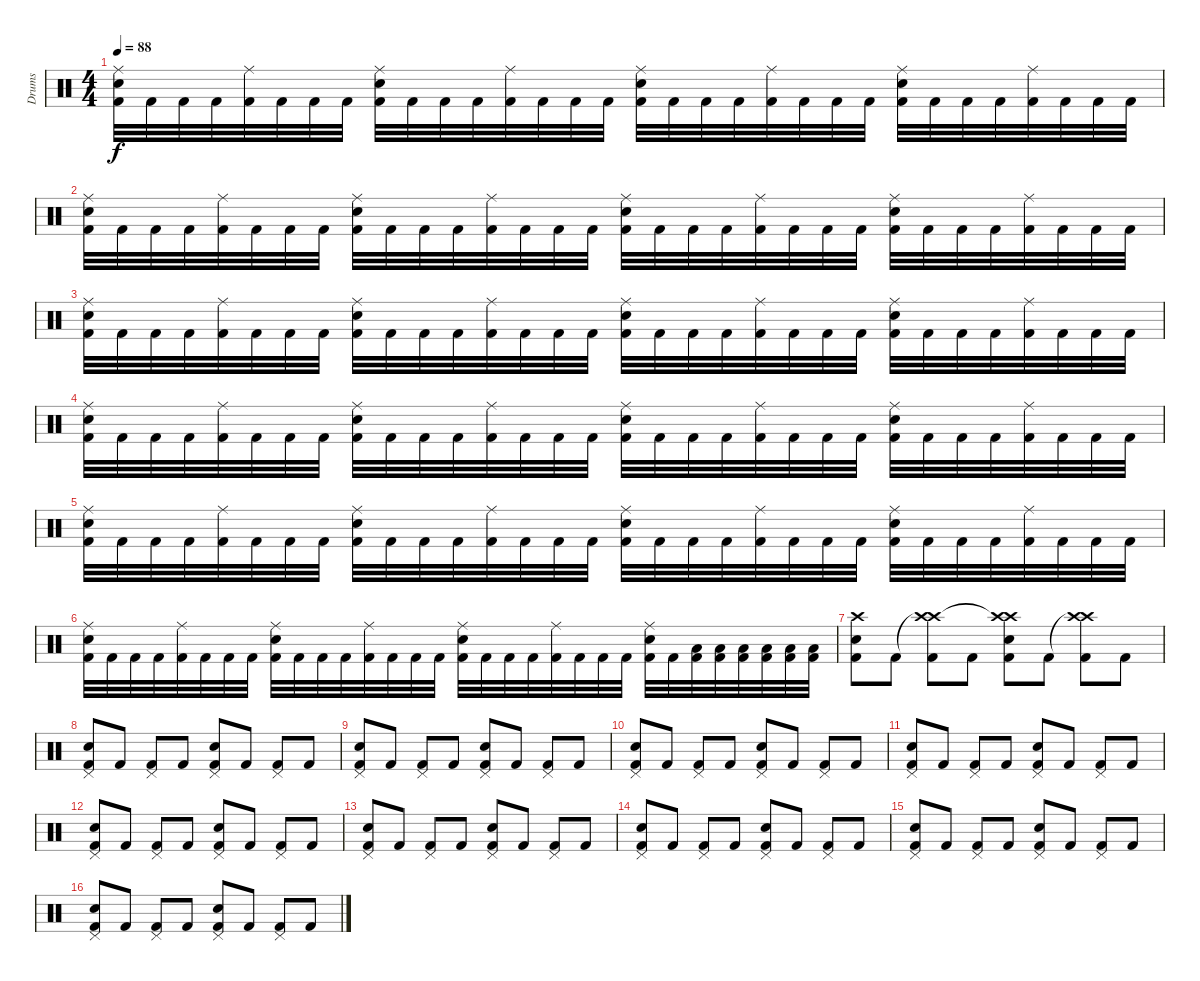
\track ("Drums" "Drums") {instrument percussion}
\staff {score}
\articulation defaults
\ts (4 4)
\tempo 88
\clef neutral
\ks c
("Ride (middle)" "Kick (hit) 2" "Electric Snare (hit)").32{dy f} "Kick (hit) 2".32 "Kick (hit) 2".32 "Kick (hit) 2".32 ("Ride (middle)" "Kick (hit) 2").32 "Kick (hit) 2".32 "Kick (hit) 2".32 "Kick (hit) 2".32 ("Ride (middle)" "Kick (hit) 2" "Electric Snare (hit)").32 "Kick (hit) 2".32 "Kick (hit) 2".32 "Kick (hit) 2".32 ("Ride (middle)" "Kick (hit) 2").32 "Kick (hit) 2".32 "Kick (hit) 2".32 "Kick (hit) 2".32 ("Ride (middle)" "Kick (hit) 2" "Electric Snare (hit)").32 "Kick (hit) 2".32 "Kick (hit) 2".32 "Kick (hit) 2".32 ("Ride (middle)" "Kick (hit) 2").32 "Kick (hit) 2".32 "Kick (hit) 2".32 "Kick (hit) 2".32 ("Ride (middle)" "Kick (hit) 2" "Electric Snare (hit)").32 "Kick (hit) 2".32 "Kick (hit) 2".32 "Kick (hit) 2".32 ("Ride (middle)" "Kick (hit) 2").32 "Kick (hit) 2".32 "Kick (hit) 2".32 "Kick (hit) 2".32 |
("Ride (middle)" "Kick (hit) 2" "Electric Snare (hit)").32 "Kick (hit) 2".32 "Kick (hit) 2".32 "Kick (hit) 2".32 ("Ride (middle)" "Kick (hit) 2").32 "Kick (hit) 2".32 "Kick (hit) 2".32 "Kick (hit) 2".32 ("Ride (middle)" "Kick (hit) 2" "Electric Snare (hit)").32 "Kick (hit) 2".32 "Kick (hit) 2".32 "Kick (hit) 2".32 ("Ride (middle)" "Kick (hit) 2").32 "Kick (hit) 2".32 "Kick (hit) 2".32 "Kick (hit) 2".32 ("Ride (middle)" "Kick (hit) 2" "Electric Snare (hit)").32 "Kick (hit) 2".32 "Kick (hit) 2".32 "Kick (hit) 2".32 ("Ride (middle)" "Kick (hit) 2").32 "Kick (hit) 2".32 "Kick (hit) 2".32 "Kick (hit) 2".32 ("Ride (middle)" "Kick (hit) 2" "Electric Snare (hit)").32 "Kick (hit) 2".32 "Kick (hit) 2".32 "Kick (hit) 2".32 ("Ride (middle)" "Kick (hit) 2").32 "Kick (hit) 2".32 "Kick (hit) 2".32 "Kick (hit) 2".32 |
("Ride (middle)" "Kick (hit) 2" "Electric Snare (hit)").32 "Kick (hit) 2".32 "Kick (hit) 2".32 "Kick (hit) 2".32 ("Ride (middle)" "Kick (hit) 2").32 "Kick (hit) 2".32 "Kick (hit) 2".32 "Kick (hit) 2".32 ("Ride (middle)" "Kick (hit) 2" "Electric Snare (hit)").32 "Kick (hit) 2".32 "Kick (hit) 2".32 "Kick (hit) 2".32 ("Ride (middle)" "Kick (hit) 2").32 "Kick (hit) 2".32 "Kick (hit) 2".32 "Kick (hit) 2".32 ("Ride (middle)" "Kick (hit) 2" "Electric Snare (hit)").32 "Kick (hit) 2".32 "Kick (hit) 2".32 "Kick (hit) 2".32 ("Ride (middle)" "Kick (hit) 2").32 "Kick (hit) 2".32 "Kick (hit) 2".32 "Kick (hit) 2".32 ("Ride (middle)" "Kick (hit) 2" "Electric Snare (hit)").32 "Kick (hit) 2".32 "Kick (hit) 2".32 "Kick (hit) 2".32 ("Ride (middle)" "Kick (hit) 2").32 "Kick (hit) 2".32 "Kick (hit) 2".32 "Kick (hit) 2".32 |
("Ride (middle)" "Kick (hit) 2" "Electric Snare (hit)").32 "Kick (hit) 2".32 "Kick (hit) 2".32 "Kick (hit) 2".32 ("Ride (middle)" "Kick (hit) 2").32 "Kick (hit) 2".32 "Kick (hit) 2".32 "Kick (hit) 2".32 ("Ride (middle)" "Kick (hit) 2" "Electric Snare (hit)").32 "Kick (hit) 2".32 "Kick (hit) 2".32 "Kick (hit) 2".32 ("Ride (middle)" "Kick (hit) 2").32 "Kick (hit) 2".32 "Kick (hit) 2".32 "Kick (hit) 2".32 ("Ride (middle)" "Kick (hit) 2" "Electric Snare (hit)").32 "Kick (hit) 2".32 "Kick (hit) 2".32 "Kick (hit) 2".32 ("Ride (middle)" "Kick (hit) 2").32 "Kick (hit) 2".32 "Kick (hit) 2".32 "Kick (hit) 2".32 ("Ride (middle)" "Kick (hit) 2" "Electric Snare (hit)").32 "Kick (hit) 2".32 "Kick (hit) 2".32 "Kick (hit) 2".32 ("Ride (middle)" "Kick (hit) 2").32 "Kick (hit) 2".32 "Kick (hit) 2".32 "Kick (hit) 2".32 |
("Ride (middle)" "Kick (hit) 2" "Electric Snare (hit)").32 "Kick (hit) 2".32 "Kick (hit) 2".32 "Kick (hit) 2".32 ("Ride (middle)" "Kick (hit) 2").32 "Kick (hit) 2".32 "Kick (hit) 2".32 "Kick (hit) 2".32 ("Ride (middle)" "Kick (hit) 2" "Electric Snare (hit)").32 "Kick (hit) 2".32 "Kick (hit) 2".32 "Kick (hit) 2".32 ("Ride (middle)" "Kick (hit) 2").32 "Kick (hit) 2".32 "Kick (hit) 2".32 "Kick (hit) 2".32 ("Ride (middle)" "Kick (hit) 2" "Electric Snare (hit)").32 "Kick (hit) 2".32 "Kick (hit) 2".32 "Kick (hit) 2".32 ("Ride (middle)" "Kick (hit) 2").32 "Kick (hit) 2".32 "Kick (hit) 2".32 "Kick (hit) 2".32 ("Ride (middle)" "Kick (hit) 2" "Electric Snare (hit)").32 "Kick (hit) 2".32 "Kick (hit) 2".32 "Kick (hit) 2".32 ("Ride (middle)" "Kick (hit) 2").32 "Kick (hit) 2".32 "Kick (hit) 2".32 "Kick (hit) 2".32 |
("Ride (middle)" "Kick (hit) 2" "Electric Snare (hit)").32 "Kick (hit) 2".32 "Kick (hit) 2".32 "Kick (hit) 2".32 ("Ride (middle)" "Kick (hit) 2").32 "Kick (hit) 2".32 "Kick (hit) 2".32 "Kick (hit) 2".32 ("Ride (middle)" "Kick (hit) 2" "Electric Snare (hit)").32 "Kick (hit) 2".32 "Kick (hit) 2".32 "Kick (hit) 2".32 ("Ride (middle)" "Kick (hit) 2").32 "Kick (hit) 2".32 "Kick (hit) 2".32 "Kick (hit) 2".32 ("Ride (middle)" "Kick (hit) 2" "Electric Snare (hit)").32 "Kick (hit) 2".32 "Kick (hit) 2".32 "Kick (hit) 2".32 ("Ride (middle)" "Kick (hit) 2").32 "Kick (hit) 2".32 "Kick (hit) 2".32 "Kick (hit) 2".32 ("Ride (middle)" "Kick (hit) 2" "Electric Snare (hit)").32 "Kick (hit) 2".32 ("Low Floor Tom (hit)" "Kick (hit) 2").32 ("Low Floor Tom (hit)" "Kick (hit) 2").32 ("Low Floor Tom (hit)" "Kick (hit) 2").32 ("Low Floor Tom (hit)" "Kick (hit) 2").32 ("Low Floor Tom (hit)" "Kick (hit) 2").32 ("Low Floor Tom (hit)" "Kick (hit) 2").32 |
("Crash high (hit)" "Kick (hit) 2" "Electric Snare (hit)").8 "Kick (hit) 2".8 ("Crash high (hit)"{t} "Crash high (hit)" "Kick (hit) 2").8 "Kick (hit) 2".8 ("Crash high (hit)" "Crash high (hit)"{t} "Kick (hit) 2" "Electric Snare (hit)").8 "Kick (hit) 2".8 ("Crash high (hit)"{t} "Crash high (hit)" "Kick (hit) 2").8 "Kick (hit) 2".8 |
("Pedal Hi-Hat (hit)" "Kick (hit) 2" "Electric Snare (hit)").8 "Kick (hit) 2".8 ("Pedal Hi-Hat (hit)" "Kick (hit) 2").8 "Kick (hit) 2".8 ("Pedal Hi-Hat (hit)" "Kick (hit) 2" "Electric Snare (hit)").8 "Kick (hit) 2".8 ("Pedal Hi-Hat (hit)" "Kick (hit) 2").8 "Kick (hit) 2".8 |
("Pedal Hi-Hat (hit)" "Kick (hit) 2" "Electric Snare (hit)").8 "Kick (hit) 2".8 ("Pedal Hi-Hat (hit)" "Kick (hit) 2").8 "Kick (hit) 2".8 ("Pedal Hi-Hat (hit)" "Kick (hit) 2" "Electric Snare (hit)").8 "Kick (hit) 2".8 ("Pedal Hi-Hat (hit)" "Kick (hit) 2").8 "Kick (hit) 2".8 |
("Pedal Hi-Hat (hit)" "Kick (hit) 2" "Electric Snare (hit)").8 "Kick (hit) 2".8 ("Pedal Hi-Hat (hit)" "Kick (hit) 2").8 "Kick (hit) 2".8 ("Pedal Hi-Hat (hit)" "Kick (hit) 2" "Electric Snare (hit)").8 "Kick (hit) 2".8 ("Pedal Hi-Hat (hit)" "Kick (hit) 2").8 "Kick (hit) 2".8 |
("Pedal Hi-Hat (hit)" "Kick (hit) 2" "Electric Snare (hit)").8 "Kick (hit) 2".8 ("Pedal Hi-Hat (hit)" "Kick (hit) 2").8 "Kick (hit) 2".8 ("Pedal Hi-Hat (hit)" "Kick (hit) 2" "Electric Snare (hit)").8 "Kick (hit) 2".8 ("Pedal Hi-Hat (hit)" "Kick (hit) 2").8 "Kick (hit) 2".8 |
("Pedal Hi-Hat (hit)" "Kick (hit) 2" "Electric Snare (hit)").8 "Kick (hit) 2".8 ("Pedal Hi-Hat (hit)" "Kick (hit) 2").8 "Kick (hit) 2".8 ("Pedal Hi-Hat (hit)" "Kick (hit) 2" "Electric Snare (hit)").8 "Kick (hit) 2".8 ("Pedal Hi-Hat (hit)" "Kick (hit) 2").8 "Kick (hit) 2".8 |
("Pedal Hi-Hat (hit)" "Kick (hit) 2" "Electric Snare (hit)").8 "Kick (hit) 2".8 ("Pedal Hi-Hat (hit)" "Kick (hit) 2").8 "Kick (hit) 2".8 ("Pedal Hi-Hat (hit)" "Kick (hit) 2" "Electric Snare (hit)").8 "Kick (hit) 2".8 ("Pedal Hi-Hat (hit)" "Kick (hit) 2").8 "Kick (hit) 2".8 |
("Pedal Hi-Hat (hit)" "Kick (hit) 2" "Electric Snare (hit)").8 "Kick (hit) 2".8 ("Pedal Hi-Hat (hit)" "Kick (hit) 2").8 "Kick (hit) 2".8 ("Pedal Hi-Hat (hit)" "Kick (hit) 2" "Electric Snare (hit)").8 "Kick (hit) 2".8 ("Pedal Hi-Hat (hit)" "Kick (hit) 2").8 "Kick (hit) 2".8 |
("Pedal Hi-Hat (hit)" "Kick (hit) 2" "Electric Snare (hit)").8 "Kick (hit) 2".8 ("Pedal Hi-Hat (hit)" "Kick (hit) 2").8 "Kick (hit) 2".8 ("Pedal Hi-Hat (hit)" "Kick (hit) 2" "Electric Snare (hit)").8 "Kick (hit) 2".8 ("Pedal Hi-Hat (hit)" "Kick (hit) 2").8 "Kick (hit) 2".8 |
("Pedal Hi-Hat (hit)" "Kick (hit) 2" "Electric Snare (hit)").8 "Kick (hit) 2".8 ("Pedal Hi-Hat (hit)" "Kick (hit) 2").8 "Kick (hit) 2".8 ("Pedal Hi-Hat (hit)" "Kick (hit) 2" "Electric Snare (hit)").8 "Kick (hit) 2".8 ("Pedal Hi-Hat (hit)" "Kick (hit) 2").8 "Kick (hit) 2".8
